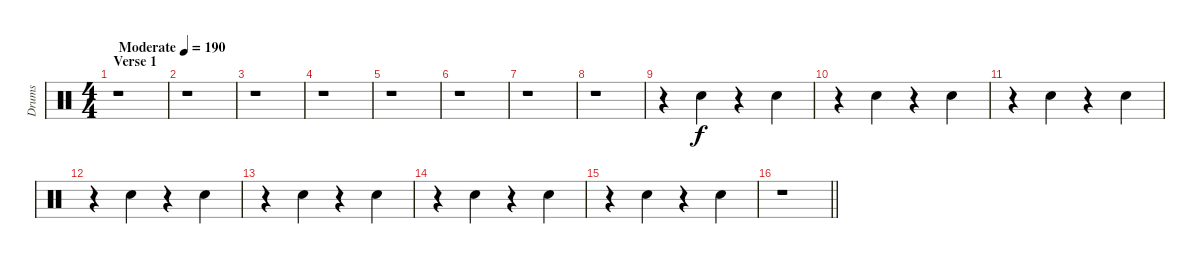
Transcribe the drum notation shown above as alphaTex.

\track ("Drums" "Drums") {instrument percussion}
\staff {score}
\articulation defaults
\ts (4 4)
\section ("" "Verse 1")
\tempo (190 "Moderate")
\clef neutral
\ks c
r.1{dy f volume 0} |
r.1 |
r.1 |
r.1 |
r.1 |
r.1 |
r.1 |
r.1 |
r.4{volume 8} "Snare (hit) 2".4 r.4 "Snare (hit) 2".4 |
r.4 "Snare (hit) 2".4 r.4 "Snare (hit) 2".4 |
r.4 "Snare (hit) 2".4 r.4 "Snare (hit) 2".4 |
r.4 "Snare (hit) 2".4 r.4 "Snare (hit) 2".4 |
r.4{volume 16} "Snare (hit) 2".4 r.4 "Snare (hit) 2".4 |
r.4 "Snare (hit) 2".4 r.4 "Snare (hit) 2".4 |
r.4 "Snare (hit) 2".4 r.4 "Snare (hit) 2".4 |
\barLineRight lightlight
r.1
